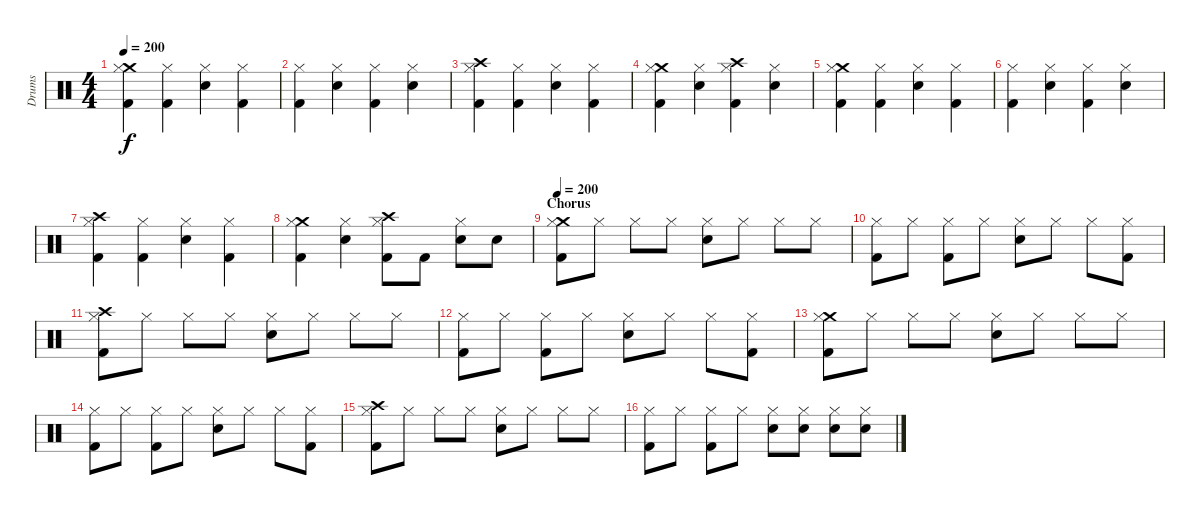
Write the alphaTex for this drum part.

\track ("Drums" "Drums") {instrument percussion}
\staff {score}
\articulation defaults
\ts (4 4)
\tempo 200
\clef neutral
\ks c
("Crash medium (hit)" "Hi-Hat (closed)" "Kick (hit) 2").4{dy f} ("Hi-Hat (closed)" "Kick (hit) 2").4 ("Hi-Hat (closed)" "Electric Snare (hit)").4 ("Hi-Hat (closed)" "Kick (hit) 2").4 |
("Hi-Hat (closed)" "Kick (hit) 2").4 ("Hi-Hat (closed)" "Electric Snare (hit)").4 ("Hi-Hat (closed)" "Kick (hit) 2").4 ("Hi-Hat (closed)" "Electric Snare (hit)").4 |
("Crash high (hit)" "Hi-Hat (closed)" "Kick (hit) 2").4 ("Hi-Hat (closed)" "Kick (hit) 2").4 ("Hi-Hat (closed)" "Electric Snare (hit)").4 ("Hi-Hat (closed)" "Kick (hit) 2").4 |
("Crash medium (hit)" "Hi-Hat (closed)" "Kick (hit) 2").4 ("Hi-Hat (closed)" "Electric Snare (hit)").4 ("Crash high (hit)" "Hi-Hat (closed)" "Kick (hit) 2").4 ("Hi-Hat (closed)" "Electric Snare (hit)").4 |
("Crash medium (hit)" "Hi-Hat (closed)" "Kick (hit) 2").4 ("Hi-Hat (closed)" "Kick (hit) 2").4 ("Hi-Hat (closed)" "Electric Snare (hit)").4 ("Hi-Hat (closed)" "Kick (hit) 2").4 |
("Hi-Hat (closed)" "Kick (hit) 2").4 ("Hi-Hat (closed)" "Electric Snare (hit)").4 ("Hi-Hat (closed)" "Kick (hit) 2").4 ("Hi-Hat (closed)" "Electric Snare (hit)").4 |
("Crash high (hit)" "Hi-Hat (closed)" "Kick (hit) 2").4 ("Hi-Hat (closed)" "Kick (hit) 2").4 ("Hi-Hat (closed)" "Electric Snare (hit)").4 ("Hi-Hat (closed)" "Kick (hit) 2").4 |
("Crash medium (hit)" "Hi-Hat (closed)" "Kick (hit) 2").4 ("Hi-Hat (closed)" "Electric Snare (hit)").4 ("Crash high (hit)" "Hi-Hat (closed)" "Kick (hit) 2").8 "Kick (hit) 2".8 ("Hi-Hat (closed)" "Electric Snare (hit)").8 "Electric Snare (hit)".8 |
\section ("" "Chorus")
\tempo 200
("Crash medium (hit)" "Hi-Hat (closed)" "Kick (hit) 2").8 "Hi-Hat (closed)".8 "Hi-Hat (closed)".8 "Hi-Hat (closed)".8 ("Hi-Hat (closed)" "Electric Snare (hit)").8 "Hi-Hat (closed)".8 "Hi-Hat (closed)".8 "Hi-Hat (closed)".8 |
("Hi-Hat (closed)" "Kick (hit) 2").8 "Hi-Hat (closed)".8 ("Hi-Hat (closed)" "Kick (hit) 2").8 "Hi-Hat (closed)".8 ("Hi-Hat (closed)" "Electric Snare (hit)").8 "Hi-Hat (closed)".8 "Hi-Hat (closed)".8 ("Hi-Hat (closed)" "Kick (hit) 2").8 |
("Crash high (hit)" "Hi-Hat (closed)" "Kick (hit) 2").8 "Hi-Hat (closed)".8 "Hi-Hat (closed)".8 "Hi-Hat (closed)".8 ("Hi-Hat (closed)" "Electric Snare (hit)").8 "Hi-Hat (closed)".8 "Hi-Hat (closed)".8 "Hi-Hat (closed)".8 |
("Hi-Hat (closed)" "Kick (hit) 2").8 "Hi-Hat (closed)".8 ("Hi-Hat (closed)" "Kick (hit) 2").8 "Hi-Hat (closed)".8 ("Hi-Hat (closed)" "Electric Snare (hit)").8 "Hi-Hat (closed)".8 "Hi-Hat (closed)".8 ("Hi-Hat (closed)" "Kick (hit) 2").8 |
("Crash medium (hit)" "Hi-Hat (closed)" "Kick (hit) 2").8 "Hi-Hat (closed)".8 "Hi-Hat (closed)".8 "Hi-Hat (closed)".8 ("Hi-Hat (closed)" "Electric Snare (hit)").8 "Hi-Hat (closed)".8 "Hi-Hat (closed)".8 "Hi-Hat (closed)".8 |
("Hi-Hat (closed)" "Kick (hit) 2").8 "Hi-Hat (closed)".8 ("Hi-Hat (closed)" "Kick (hit) 2").8 "Hi-Hat (closed)".8 ("Hi-Hat (closed)" "Electric Snare (hit)").8 "Hi-Hat (closed)".8 "Hi-Hat (closed)".8 ("Hi-Hat (closed)" "Kick (hit) 2").8 |
("Crash high (hit)" "Hi-Hat (closed)" "Kick (hit) 2").8 "Hi-Hat (closed)".8 "Hi-Hat (closed)".8 "Hi-Hat (closed)".8 ("Hi-Hat (closed)" "Electric Snare (hit)").8 "Hi-Hat (closed)".8 "Hi-Hat (closed)".8 "Hi-Hat (closed)".8 |
("Hi-Hat (closed)" "Kick (hit) 2").8 "Hi-Hat (closed)".8 ("Hi-Hat (closed)" "Kick (hit) 2").8 "Hi-Hat (closed)".8 ("Hi-Hat (closed)" "Electric Snare (hit)").8 ("Hi-Hat (closed)" "Electric Snare (hit)").8 ("Hi-Hat (closed)" "Electric Snare (hit)").8 ("Hi-Hat (closed)" "Electric Snare (hit)").8
